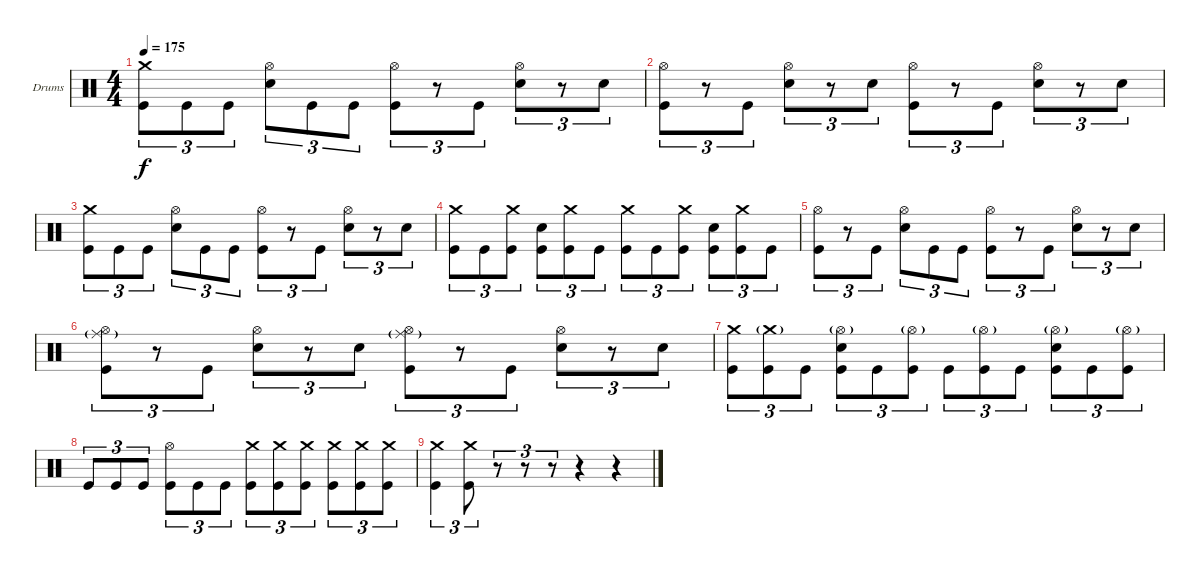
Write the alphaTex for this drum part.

\defaultSystemsLayout 4
\bracketExtendMode groupsimilarinstruments
\firstSystemTrackNameOrientation horizontal
\otherSystemsTrackNameOrientation horizontal
\track ("Moe Carlson" "Drums") {instrument percussion}
\staff {score}
\articulation defaults
\ts (4 4)
\tempo 175
\clef neutral
\ks c
("Crash medium (hit)" "Kick (hit)").8{tu (3 2) dy f} "Kick (hit)".8{tu (3 2)} "Kick (hit)".8{tu (3 2)} ("Snare (hit) 2" "Hi-Hat (open)").8{tu (3 2)} "Kick (hit)".8{tu (3 2)} "Kick (hit)".8{tu (3 2)} ("Kick (hit)" "Hi-Hat (open)").8{tu (3 2)} r.8{tu (3 2)} "Kick (hit)".8{tu (3 2)} ("Snare (hit) 2" "Hi-Hat (open)").8{tu (3 2)} r.8{tu (3 2)} "Snare (hit) 2".8{tu (3 2)} |
("Hi-Hat (open)" "Kick (hit)").8{tu (3 2)} r.8{tu (3 2)} "Kick (hit)".8{tu (3 2)} ("Snare (hit) 2" "Hi-Hat (open)").8{tu (3 2)} r.8{tu (3 2)} "Snare (hit) 2".8{tu (3 2)} ("Hi-Hat (open)" "Kick (hit)").8{tu (3 2)} r.8{tu (3 2)} "Kick (hit)".8{tu (3 2)} ("Snare (hit) 2" "Hi-Hat (open)").8{tu (3 2)} r.8{tu (3 2)} "Snare (hit) 2".8{tu (3 2)} |
("Crash medium (hit)" "Kick (hit)").8{tu (3 2)} "Kick (hit)".8{tu (3 2)} "Kick (hit)".8{tu (3 2)} ("Snare (hit) 2" "Hi-Hat (open)").8{tu (3 2)} "Kick (hit)".8{tu (3 2)} "Kick (hit)".8{tu (3 2)} ("Kick (hit)" "Hi-Hat (open)").8{tu (3 2)} r.8{tu (3 2)} "Kick (hit)".8{tu (3 2)} ("Snare (hit) 2" "Hi-Hat (open)").8{tu (3 2)} r.8{tu (3 2)} "Snare (hit) 2".8{tu (3 2)} |
("Kick (hit)" "Crash medium (hit)").8{tu (3 2)} "Kick (hit)".8{tu (3 2)} ("Kick (hit)" "Crash medium (hit)").8{tu (3 2)} ("Kick (hit)" "Snare (hit) 2").8{tu (3 2)} ("Kick (hit)" "Crash medium (hit)").8{tu (3 2)} "Kick (hit)".8{tu (3 2)} ("Kick (hit)" "Crash medium (hit)").8{tu (3 2)} "Kick (hit)".8{tu (3 2)} ("Kick (hit)" "Crash medium (hit)").8{tu (3 2)} ("Kick (hit)" "Snare (hit) 2").8{tu (3 2)} ("Kick (hit)" "Crash medium (hit)").8{tu (3 2)} "Kick (hit)".8{tu (3 2)} |
("Hi-Hat (open)" "Kick (hit)").8{tu (3 2)} r.8{tu (3 2)} "Kick (hit)".8{tu (3 2)} ("Snare (hit) 2" "Hi-Hat (open)").8{tu (3 2)} "Kick (hit)".8{tu (3 2)} "Kick (hit)".8{tu (3 2)} ("Hi-Hat (open)" "Kick (hit)").8{tu (3 2)} r.8{tu (3 2)} "Kick (hit)".8{tu (3 2)} ("Snare (hit) 2" "Hi-Hat (open)").8{tu (3 2)} r.8{tu (3 2)} "Snare (hit) 2".8{tu (3 2)} |
("Hi-Hat (open)" "Kick (hit)" "Ride (middle)"{g}).8{tu (3 2)} r.8{tu (3 2)} "Kick (hit)".8{tu (3 2)} ("Snare (hit) 2" "Hi-Hat (open)").8{tu (3 2)} r.8{tu (3 2)} "Snare (hit) 2".8{tu (3 2)} ("Hi-Hat (open)" "Ride (middle)"{g} "Kick (hit)").8{tu (3 2)} r.8{tu (3 2)} "Kick (hit)".8{tu (3 2)} ("Snare (hit) 2" "Hi-Hat (open)").8{tu (3 2)} r.8{tu (3 2)} "Snare (hit) 2".8{tu (3 2)} |
("Crash medium (hit)" "Kick (hit)").8{tu (3 2)} ("Kick (hit)" "Crash medium (hit)"{g}).8{tu (3 2)} "Kick (hit)".8{tu (3 2)} ("Kick (hit)" "Hi-Hat (open)"{g} "Snare (hit) 2").8{tu (3 2)} "Kick (hit)".8{tu (3 2)} ("Kick (hit)" "Hi-Hat (open)"{g}).8{tu (3 2)} "Kick (hit)".8{tu (3 2)} ("Kick (hit)" "Hi-Hat (open)"{g}).8{tu (3 2)} "Kick (hit)".8{tu (3 2)} ("Kick (hit)" "Hi-Hat (open)"{g} "Snare (hit) 2").8{tu (3 2)} "Kick (hit)".8{tu (3 2)} ("Kick (hit)" "Hi-Hat (open)"{g}).8{tu (3 2)} |
"Kick (hit)".8{tu (3 2)} "Kick (hit)".8{tu (3 2)} "Kick (hit)".8{tu (3 2)} ("Kick (hit)" "Hi-Hat (open)").8{tu (3 2)} "Kick (hit)".8{tu (3 2)} "Kick (hit)".8{tu (3 2)} ("Kick (hit)" "Crash medium (hit)").8{tu (3 2)} ("Kick (hit)" "Crash medium (hit)").8{tu (3 2)} ("Kick (hit)" "Crash medium (hit)").8{tu (3 2)} ("Kick (hit)" "Crash medium (hit)").8{tu (3 2)} ("Kick (hit)" "Crash medium (hit)").8{tu (3 2)} ("Kick (hit)" "Crash medium (hit)").8{tu (3 2)} |
("Crash medium (hit)" "Kick (hit)").4{tu (3 2)} ("Crash medium (hit)" "Kick (hit)").8{tu (3 2)} r.8{tu (3 2)} r.8{tu (3 2)} r.8{tu (3 2)} r.4 r.4
